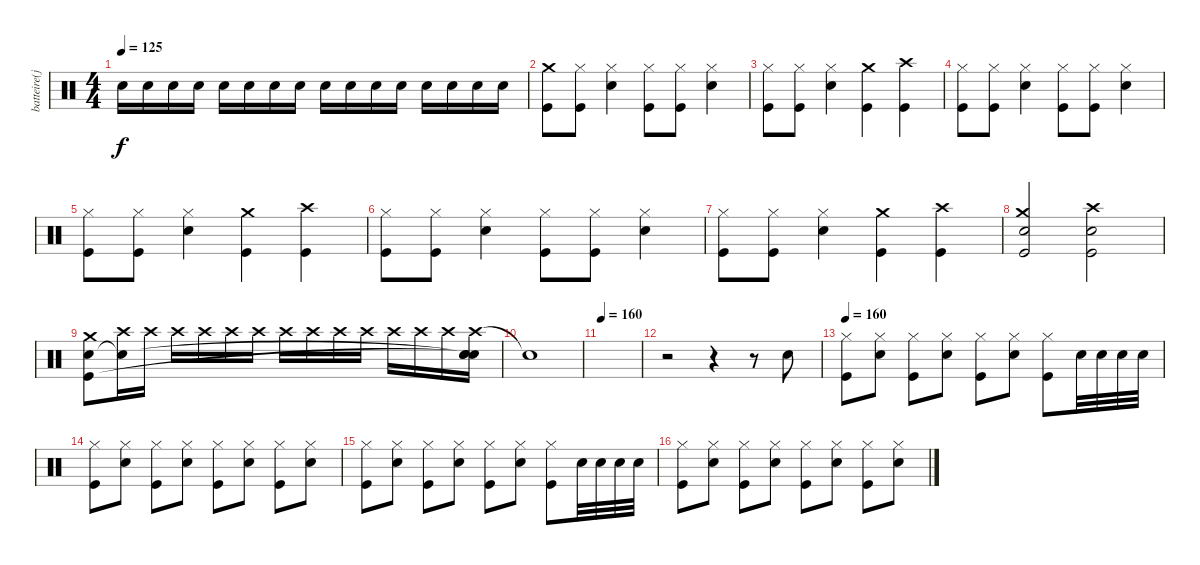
\track ("batteire(jesus bonehead)" "batteire(j") {instrument percussion}
\staff {score}
\articulation defaults
\ts (4 4)
\tempo 125
\clef neutral
\ks c "Snare (hit) 2".16{dy f} "Snare (hit) 2".16 "Snare (hit) 2".16 "Snare (hit) 2".16 "Snare (hit) 2".16 "Snare (hit) 2".16 "Snare (hit) 2".16 "Snare (hit) 2".16 "Snare (hit) 2".16 "Snare (hit) 2".16 "Snare (hit) 2".16 "Snare (hit) 2".16 "Snare (hit) 2".16 "Snare (hit) 2".16 "Snare (hit) 2".16 "Snare (hit) 2".16
|
("Crash medium (hit)" "Kick (hit)").8 ("Hi-Hat (closed)" "Kick (hit)").8 ("Hi-Hat (closed)" "Snare (hit) 2").4 ("Hi-Hat (closed)" "Kick (hit)").8 ("Hi-Hat (closed)" "Kick (hit)").8 ("Hi-Hat (closed)" "Snare (hit) 2").4 |
("Hi-Hat (closed)" "Kick (hit)").8 ("Hi-Hat (closed)" "Kick (hit)").8 ("Hi-Hat (closed)" "Snare (hit) 2").4 ("Crash medium (hit)" "Kick (hit)").4 ("Crash high (hit)" "Kick (hit)").4 |
("Hi-Hat (closed)" "Kick (hit)").8 ("Hi-Hat (closed)" "Kick (hit)").8 ("Hi-Hat (closed)" "Snare (hit) 2").4 ("Hi-Hat (closed)" "Kick (hit)").8 ("Hi-Hat (closed)" "Kick (hit)").8 ("Hi-Hat (closed)" "Snare (hit) 2").4 |
("Hi-Hat (closed)" "Kick (hit)").8 ("Hi-Hat (closed)" "Kick (hit)").8 ("Hi-Hat (closed)" "Snare (hit) 2").4 ("Crash medium (hit)" "Kick (hit)").4 ("Crash high (hit)" "Kick (hit)").4 |
("Hi-Hat (closed)" "Kick (hit)").8 ("Hi-Hat (closed)" "Kick (hit)").8 ("Hi-Hat (closed)" "Snare (hit) 2").4 ("Hi-Hat (closed)" "Kick (hit)").8 ("Hi-Hat (closed)" "Kick (hit)").8 ("Hi-Hat (closed)" "Snare (hit) 2").4 |
("Hi-Hat (closed)" "Kick (hit)").8 ("Hi-Hat (closed)" "Kick (hit)").8 ("Hi-Hat (closed)" "Snare (hit) 2").4 ("Crash medium (hit)" "Kick (hit)").4 ("Crash high (hit)" "Kick (hit)").4 |
("Crash medium (hit)" "Snare (hit) 2" "Kick (hit)").2 ("Crash high (hit)" "Snare (hit) 2" "Kick (hit)").2 |
("Crash medium (hit)" "Snare (hit) 2" "Kick (hit)").8 ("Crash high (hit)" "Snare (hit)"{t}).16{volume 3} "Crash high (hit)".16 "Crash high (hit)".16 "Crash high (hit)".16 "Crash high (hit)".16 "Crash high (hit)".16 "Crash high (hit)".16 "Crash high (hit)".16 "Crash high (hit)".16 "Crash high (hit)".16 "Crash high (hit)".16 "Crash high (hit)".16 "Crash high (hit)".16 ("Crash high (hit)" "Snare (hit)"{t} "Snare (hit)"{t} "Snare (hit)").16 |
"Snare (hit)"{t}.1 |
\tempo 160
|
r.2 r.4 r.8 "Snare (hit) 2".8{volume 12} |
\tempo 160
("Hi-Hat (closed)" "Kick (hit)").8 ("Hi-Hat (closed)" "Snare (hit) 2").8 ("Hi-Hat (closed)" "Kick (hit)").8 ("Hi-Hat (closed)" "Snare (hit) 2").8 ("Hi-Hat (closed)" "Kick (hit)").8 ("Hi-Hat (closed)" "Snare (hit) 2").8 ("Hi-Hat (closed)" "Kick (hit)").8 "Snare (hit) 2".32 "Snare (hit) 2".32 "Snare (hit) 2".32 "Snare (hit) 2".32 |
("Hi-Hat (closed)" "Kick (hit)").8 ("Hi-Hat (closed)" "Snare (hit) 2").8 ("Hi-Hat (closed)" "Kick (hit)").8 ("Hi-Hat (closed)" "Snare (hit) 2").8 ("Hi-Hat (closed)" "Kick (hit)").8 ("Hi-Hat (closed)" "Snare (hit) 2").8 ("Hi-Hat (closed)" "Kick (hit)").8 ("Hi-Hat (closed)" "Snare (hit) 2").8 |
("Hi-Hat (closed)" "Kick (hit)").8 ("Hi-Hat (closed)" "Snare (hit) 2").8 ("Hi-Hat (closed)" "Kick (hit)").8 ("Hi-Hat (closed)" "Snare (hit) 2").8 ("Hi-Hat (closed)" "Kick (hit)").8 ("Hi-Hat (closed)" "Snare (hit) 2").8 ("Hi-Hat (closed)" "Kick (hit)").8 "Snare (hit) 2".32 "Snare (hit) 2".32 "Snare (hit) 2".32 "Snare (hit) 2".32 |
("Hi-Hat (closed)" "Kick (hit)").8 ("Hi-Hat (closed)" "Snare (hit) 2").8 ("Hi-Hat (closed)" "Kick (hit)").8 ("Hi-Hat (closed)" "Snare (hit) 2").8 ("Hi-Hat (closed)" "Kick (hit)").8 ("Hi-Hat (closed)" "Snare (hit) 2").8 ("Hi-Hat (closed)" "Kick (hit)").8 ("Hi-Hat (closed)" "Snare (hit) 2").8
